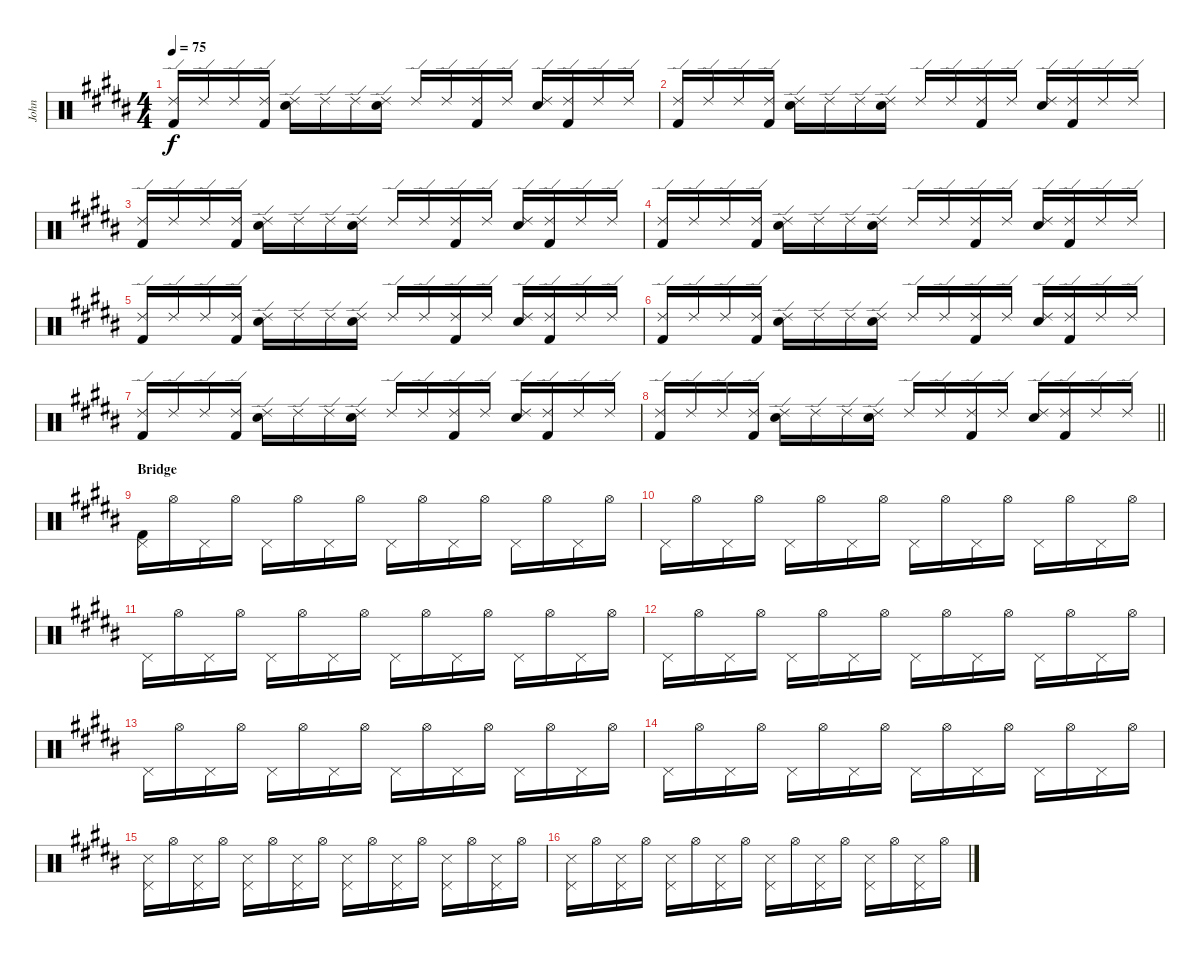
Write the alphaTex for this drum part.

\track ("John" "John") {instrument percussion}
\staff {score}
\articulation defaults
\ts (4 4)
\tempo 75
\clef neutral
\ks g#minor
("Kick (hit) 2" "Ride (edge) 2").16{dy f} "Ride (edge) 2".16 "Ride (edge) 2".16 ("Kick (hit) 2" "Ride (edge) 2").16 ("Ride (edge) 2" "Snare (hit) 2").16 "Ride (edge) 2".16 "Ride (edge) 2".16 ("Ride (edge) 2" "Snare (hit) 2").16 "Ride (edge) 2".16 "Ride (edge) 2".16 ("Kick (hit) 2" "Ride (edge) 2").16 "Ride (edge) 2".16 ("Ride (edge) 2" "Snare (hit) 2").16 ("Kick (hit) 2" "Ride (edge) 2").16 "Ride (edge) 2".16 "Ride (edge) 2".16 |
("Kick (hit) 2" "Ride (edge) 2").16 "Ride (edge) 2".16 "Ride (edge) 2".16 ("Kick (hit) 2" "Ride (edge) 2").16 ("Ride (edge) 2" "Snare (hit) 2").16 "Ride (edge) 2".16 "Ride (edge) 2".16 ("Ride (edge) 2" "Snare (hit) 2").16 "Ride (edge) 2".16 "Ride (edge) 2".16 ("Kick (hit) 2" "Ride (edge) 2").16 "Ride (edge) 2".16 ("Ride (edge) 2" "Snare (hit) 2").16 ("Kick (hit) 2" "Ride (edge) 2").16 "Ride (edge) 2".16 "Ride (edge) 2".16 |
("Kick (hit) 2" "Ride (edge) 2").16 "Ride (edge) 2".16 "Ride (edge) 2".16 ("Kick (hit) 2" "Ride (edge) 2").16 ("Ride (edge) 2" "Snare (hit) 2").16 "Ride (edge) 2".16 "Ride (edge) 2".16 ("Ride (edge) 2" "Snare (hit) 2").16 "Ride (edge) 2".16 "Ride (edge) 2".16 ("Kick (hit) 2" "Ride (edge) 2").16 "Ride (edge) 2".16 ("Ride (edge) 2" "Snare (hit) 2").16 ("Kick (hit) 2" "Ride (edge) 2").16 "Ride (edge) 2".16 "Ride (edge) 2".16 |
("Kick (hit) 2" "Ride (edge) 2").16 "Ride (edge) 2".16 "Ride (edge) 2".16 ("Kick (hit) 2" "Ride (edge) 2").16 ("Ride (edge) 2" "Snare (hit) 2").16 "Ride (edge) 2".16 "Ride (edge) 2".16 ("Ride (edge) 2" "Snare (hit) 2").16 "Ride (edge) 2".16 "Ride (edge) 2".16 ("Kick (hit) 2" "Ride (edge) 2").16 "Ride (edge) 2".16 ("Ride (edge) 2" "Snare (hit) 2").16 ("Kick (hit) 2" "Ride (edge) 2").16 "Ride (edge) 2".16 "Ride (edge) 2".16 |
("Kick (hit) 2" "Ride (edge) 2").16 "Ride (edge) 2".16 "Ride (edge) 2".16 ("Kick (hit) 2" "Ride (edge) 2").16 ("Ride (edge) 2" "Snare (hit) 2").16 "Ride (edge) 2".16 "Ride (edge) 2".16 ("Ride (edge) 2" "Snare (hit) 2").16 "Ride (edge) 2".16 "Ride (edge) 2".16 ("Kick (hit) 2" "Ride (edge) 2").16 "Ride (edge) 2".16 ("Ride (edge) 2" "Snare (hit) 2").16 ("Kick (hit) 2" "Ride (edge) 2").16 "Ride (edge) 2".16 "Ride (edge) 2".16 |
("Kick (hit) 2" "Ride (edge) 2").16 "Ride (edge) 2".16 "Ride (edge) 2".16 ("Kick (hit) 2" "Ride (edge) 2").16 ("Ride (edge) 2" "Snare (hit) 2").16 "Ride (edge) 2".16 "Ride (edge) 2".16 ("Ride (edge) 2" "Snare (hit) 2").16 "Ride (edge) 2".16 "Ride (edge) 2".16 ("Kick (hit) 2" "Ride (edge) 2").16 "Ride (edge) 2".16 ("Ride (edge) 2" "Snare (hit) 2").16 ("Kick (hit) 2" "Ride (edge) 2").16 "Ride (edge) 2".16 "Ride (edge) 2".16 |
("Kick (hit) 2" "Ride (edge) 2").16 "Ride (edge) 2".16 "Ride (edge) 2".16 ("Kick (hit) 2" "Ride (edge) 2").16 ("Ride (edge) 2" "Snare (hit) 2").16 "Ride (edge) 2".16 "Ride (edge) 2".16 ("Ride (edge) 2" "Snare (hit) 2").16 "Ride (edge) 2".16 "Ride (edge) 2".16 ("Kick (hit) 2" "Ride (edge) 2").16 "Ride (edge) 2".16 ("Ride (edge) 2" "Snare (hit) 2").16 ("Kick (hit) 2" "Ride (edge) 2").16 "Ride (edge) 2".16 "Ride (edge) 2".16 |
\barLineRight lightlight
("Kick (hit) 2" "Ride (edge) 2").16 "Ride (edge) 2".16 "Ride (edge) 2".16 ("Kick (hit) 2" "Ride (edge) 2").16 ("Ride (edge) 2" "Snare (hit) 2").16 "Ride (edge) 2".16 "Ride (edge) 2".16 ("Ride (edge) 2" "Snare (hit) 2").16 "Ride (edge) 2".16 "Ride (edge) 2".16 ("Kick (hit) 2" "Ride (edge) 2").16 "Ride (edge) 2".16 ("Ride (edge) 2" "Snare (hit) 2").16 ("Kick (hit) 2" "Ride (edge) 2").16 "Ride (edge) 2".16 "Ride (edge) 2".16 |
\section ("" "Bridge")
("Kick (hit) 2" "Pedal Hi-Hat (hit)").16 "Hi-Hat (open)".16 "Pedal Hi-Hat (hit)".16 "Hi-Hat (open)".16 "Pedal Hi-Hat (hit)".16 "Hi-Hat (open)".16 "Pedal Hi-Hat (hit)".16 "Hi-Hat (open)".16 "Pedal Hi-Hat (hit)".16 "Hi-Hat (open)".16 "Pedal Hi-Hat (hit)".16 "Hi-Hat (open)".16 "Pedal Hi-Hat (hit)".16 "Hi-Hat (open)".16 "Pedal Hi-Hat (hit)".16 "Hi-Hat (open)".16 |
"Pedal Hi-Hat (hit)".16 "Hi-Hat (open)".16 "Pedal Hi-Hat (hit)".16 "Hi-Hat (open)".16 "Pedal Hi-Hat (hit)".16 "Hi-Hat (open)".16 "Pedal Hi-Hat (hit)".16 "Hi-Hat (open)".16 "Pedal Hi-Hat (hit)".16 "Hi-Hat (open)".16 "Pedal Hi-Hat (hit)".16 "Hi-Hat (open)".16 "Pedal Hi-Hat (hit)".16 "Hi-Hat (open)".16 "Pedal Hi-Hat (hit)".16 "Hi-Hat (open)".16 |
"Pedal Hi-Hat (hit)".16 "Hi-Hat (open)".16 "Pedal Hi-Hat (hit)".16 "Hi-Hat (open)".16 "Pedal Hi-Hat (hit)".16 "Hi-Hat (open)".16 "Pedal Hi-Hat (hit)".16 "Hi-Hat (open)".16 "Pedal Hi-Hat (hit)".16 "Hi-Hat (open)".16 "Pedal Hi-Hat (hit)".16 "Hi-Hat (open)".16 "Pedal Hi-Hat (hit)".16 "Hi-Hat (open)".16 "Pedal Hi-Hat (hit)".16 "Hi-Hat (open)".16 |
"Pedal Hi-Hat (hit)".16 "Hi-Hat (open)".16 "Pedal Hi-Hat (hit)".16 "Hi-Hat (open)".16 "Pedal Hi-Hat (hit)".16 "Hi-Hat (open)".16 "Pedal Hi-Hat (hit)".16 "Hi-Hat (open)".16 "Pedal Hi-Hat (hit)".16 "Hi-Hat (open)".16 "Pedal Hi-Hat (hit)".16 "Hi-Hat (open)".16 "Pedal Hi-Hat (hit)".16 "Hi-Hat (open)".16 "Pedal Hi-Hat (hit)".16 "Hi-Hat (open)".16 |
"Pedal Hi-Hat (hit)".16 "Hi-Hat (open)".16 "Pedal Hi-Hat (hit)".16 "Hi-Hat (open)".16 "Pedal Hi-Hat (hit)".16 "Hi-Hat (open)".16 "Pedal Hi-Hat (hit)".16 "Hi-Hat (open)".16 "Pedal Hi-Hat (hit)".16 "Hi-Hat (open)".16 "Pedal Hi-Hat (hit)".16 "Hi-Hat (open)".16 "Pedal Hi-Hat (hit)".16 "Hi-Hat (open)".16 "Pedal Hi-Hat (hit)".16 "Hi-Hat (open)".16 |
"Pedal Hi-Hat (hit)".16 "Hi-Hat (open)".16 "Pedal Hi-Hat (hit)".16 "Hi-Hat (open)".16 "Pedal Hi-Hat (hit)".16 "Hi-Hat (open)".16 "Pedal Hi-Hat (hit)".16 "Hi-Hat (open)".16 "Pedal Hi-Hat (hit)".16 "Hi-Hat (open)".16 "Pedal Hi-Hat (hit)".16 "Hi-Hat (open)".16 "Pedal Hi-Hat (hit)".16 "Hi-Hat (open)".16 "Pedal Hi-Hat (hit)".16 "Hi-Hat (open)".16 |
("Pedal Hi-Hat (hit)" "Snare (side stick) 3").16 "Hi-Hat (open)".16 ("Pedal Hi-Hat (hit)" "Snare (side stick) 3").16 "Hi-Hat (open)".16 ("Pedal Hi-Hat (hit)" "Snare (side stick) 3").16 "Hi-Hat (open)".16 ("Pedal Hi-Hat (hit)" "Snare (side stick) 3").16 "Hi-Hat (open)".16 ("Pedal Hi-Hat (hit)" "Snare (side stick) 3").16 "Hi-Hat (open)".16 ("Pedal Hi-Hat (hit)" "Snare (side stick) 3").16 "Hi-Hat (open)".16 ("Pedal Hi-Hat (hit)" "Snare (side stick) 3").16 "Hi-Hat (open)".16 ("Pedal Hi-Hat (hit)" "Snare (side stick) 3").16 "Hi-Hat (open)".16 |
("Pedal Hi-Hat (hit)" "Snare (side stick) 3").16 "Hi-Hat (open)".16 ("Pedal Hi-Hat (hit)" "Snare (side stick) 3").16 "Hi-Hat (open)".16 ("Pedal Hi-Hat (hit)" "Snare (side stick) 3").16 "Hi-Hat (open)".16 ("Pedal Hi-Hat (hit)" "Snare (side stick) 3").16 "Hi-Hat (open)".16 ("Pedal Hi-Hat (hit)" "Snare (side stick) 3").16 "Hi-Hat (open)".16 ("Pedal Hi-Hat (hit)" "Snare (side stick) 3").16 "Hi-Hat (open)".16 ("Pedal Hi-Hat (hit)" "Snare (side stick) 3").16 "Hi-Hat (open)".16 ("Pedal Hi-Hat (hit)" "Snare (side stick) 3").16 "Hi-Hat (open)".16
